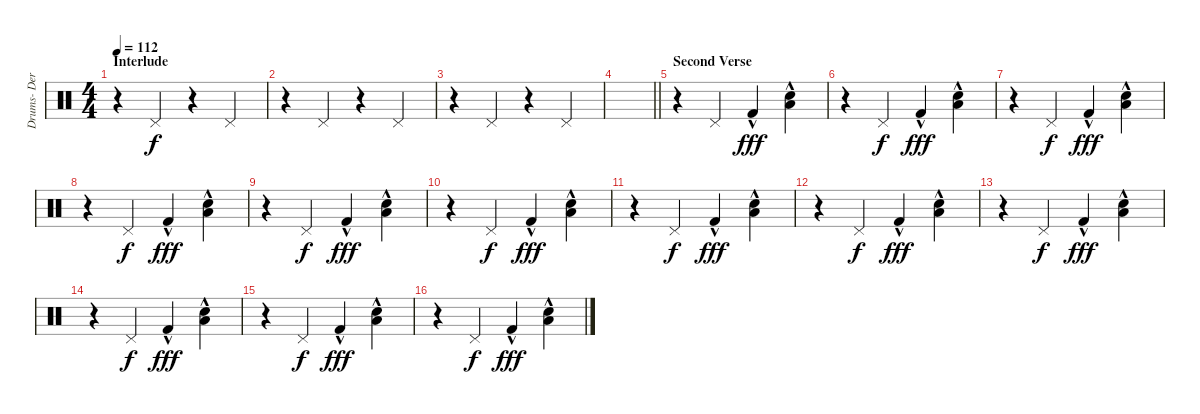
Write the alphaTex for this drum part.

\track ("Drums- Derek Grant" "Drums- Der") {instrument percussion}
\staff {score}
\articulation defaults
\ts (4 4)
\section ("" "Interlude")
\tempo 112
\clef neutral
\ks c
r.4{dy f} "Pedal Hi-Hat (hit)".4 r.4 "Pedal Hi-Hat (hit)".4 |
r.4 "Pedal Hi-Hat (hit)".4 r.4 "Pedal Hi-Hat (hit)".4 |
r.4 "Pedal Hi-Hat (hit)".4 r.4 "Pedal Hi-Hat (hit)".4 |
\barLineRight lightlight
|
\section ("" "Second Verse")
r.4 "Pedal Hi-Hat (hit)".4 "Kick (hit) 2"{hac}.4{dy fff} ("Low Tom (hit)"{hac} "Snare (hit) 2").4 |
r.4 "Pedal Hi-Hat (hit)".4{dy f} "Kick (hit) 2"{hac}.4{dy fff} ("Low Tom (hit)"{hac} "Snare (hit) 2"{hac}).4 |
r.4 "Pedal Hi-Hat (hit)".4{dy f} "Kick (hit) 2"{hac}.4{dy fff} ("Low Tom (hit)"{hac} "Snare (hit) 2").4 |
r.4 "Pedal Hi-Hat (hit)".4{dy f} "Kick (hit) 2"{hac}.4{dy fff} ("Low Tom (hit)"{hac} "Snare (hit) 2"{hac}).4 |
r.4 "Pedal Hi-Hat (hit)".4{dy f} "Kick (hit) 2"{hac}.4{dy fff} ("Low Tom (hit)"{hac} "Snare (hit) 2"{hac}).4 |
r.4 "Pedal Hi-Hat (hit)".4{dy f} "Kick (hit) 2"{hac}.4{dy fff} ("Low Tom (hit)"{hac} "Snare (hit) 2").4 |
r.4 "Pedal Hi-Hat (hit)".4{dy f} "Kick (hit) 2"{hac}.4{dy fff} ("Low Tom (hit)"{hac} "Snare (hit) 2"{hac}).4 |
r.4 "Pedal Hi-Hat (hit)".4{dy f} "Kick (hit) 2"{hac}.4{dy fff} ("Low Tom (hit)"{hac} "Snare (hit) 2").4 |
r.4 "Pedal Hi-Hat (hit)".4{dy f} "Kick (hit) 2"{hac}.4{dy fff} ("Low Tom (hit)"{hac} "Snare (hit) 2"{hac}).4 |
r.4 "Pedal Hi-Hat (hit)".4{dy f} "Kick (hit) 2"{hac}.4{dy fff} ("Low Tom (hit)"{hac} "Snare (hit) 2"{hac}).4 |
r.4 "Pedal Hi-Hat (hit)".4{dy f} "Kick (hit) 2"{hac}.4{dy fff} ("Low Tom (hit)"{hac} "Snare (hit) 2").4 |
r.4 "Pedal Hi-Hat (hit)".4{dy f} "Kick (hit) 2"{hac}.4{dy fff} ("Low Tom (hit)"{hac} "Snare (hit) 2"{hac}).4
